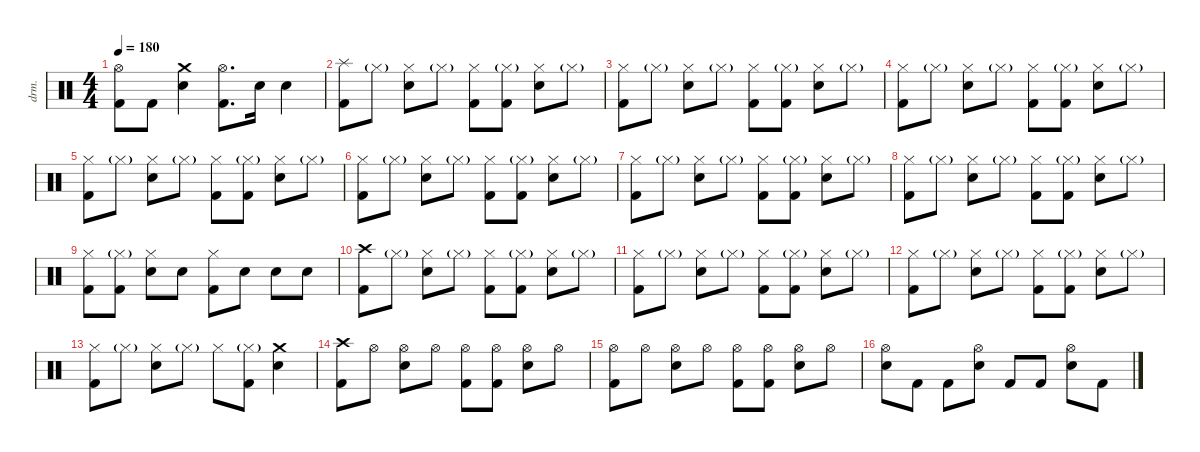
\defaultSystemsLayout 4
\hideDynamics
\bracketExtendMode nobrackets
\otherSystemsTrackNameOrientation horizontal
\track ("Drums: Ritsu Tainaka" "drm.") {instrument percussion}
\staff {score}
\articulation defaults
\ts (4 4)
\tempo 180
\clef neutral
\ks c
("Hi-Hat (open)" "Kick (hit) 2").8{dy f beam Down} "Kick (hit) 2".8{beam Down} ("Crash medium (hit)" "Snare (hit) 2").4{beam Down} ("Hi-Hat (open)" "Kick (hit) 2").8{d beam Down} "Snare (hit) 2".16{beam Down} "Snare (hit) 2".4{beam Down} |
("Splash (hit)" "Kick (hit) 2").8{beam Down} "Hi-Hat (closed)"{g}.8{dy mf beam Down} ("Hi-Hat (closed)" "Snare (hit) 2").8{dy f beam Down} "Hi-Hat (closed)"{g}.8{dy mf beam Down} ("Hi-Hat (closed)" "Kick (hit) 2").8{dy f beam Down} ("Hi-Hat (closed)"{g} "Kick (hit) 2").8{beam Down} ("Hi-Hat (closed)" "Snare (hit) 2").8{beam Down} "Hi-Hat (closed)"{g}.8{dy mf beam Down} |
("Hi-Hat (closed)" "Kick (hit) 2").8{dy f beam Down} "Hi-Hat (closed)"{g}.8{dy mf beam Down} ("Hi-Hat (closed)" "Snare (hit) 2").8{dy f beam Down} "Hi-Hat (closed)"{g}.8{dy mf beam Down} ("Hi-Hat (closed)" "Kick (hit) 2").8{dy f beam Down} ("Hi-Hat (closed)"{g} "Kick (hit) 2").8{beam Down} ("Hi-Hat (closed)" "Snare (hit) 2").8{beam Down} "Hi-Hat (closed)"{g}.8{dy mf beam Down} |
("Hi-Hat (closed)" "Kick (hit) 2").8{dy f beam Down} "Hi-Hat (closed)"{g}.8{dy mf beam Down} ("Hi-Hat (closed)" "Snare (hit) 2").8{dy f beam Down} "Hi-Hat (closed)"{g}.8{dy mf beam Down} ("Hi-Hat (closed)" "Kick (hit) 2").8{dy f beam Down} ("Hi-Hat (closed)"{g} "Kick (hit) 2").8{beam Down} ("Hi-Hat (closed)" "Snare (hit) 2").8{beam Down} "Hi-Hat (closed)"{g}.8{dy mf beam Down} |
("Hi-Hat (closed)" "Kick (hit) 2").8{dy f beam Down} "Hi-Hat (closed)"{g}.8{dy mf beam Down} ("Hi-Hat (closed)" "Snare (hit) 2").8{dy f beam Down} "Hi-Hat (closed)"{g}.8{dy mf beam Down} ("Hi-Hat (closed)" "Kick (hit) 2").8{dy f beam Down} ("Hi-Hat (closed)"{g} "Kick (hit) 2").8{beam Down} ("Hi-Hat (closed)" "Snare (hit) 2").8{beam Down} "Hi-Hat (closed)"{g}.8{dy mf beam Down} |
("Hi-Hat (closed)" "Kick (hit) 2").8{dy f beam Down} "Hi-Hat (closed)"{g}.8{dy mf beam Down} ("Hi-Hat (closed)" "Snare (hit) 2").8{dy f beam Down} "Hi-Hat (closed)"{g}.8{dy mf beam Down} ("Hi-Hat (closed)" "Kick (hit) 2").8{dy f beam Down} ("Hi-Hat (closed)"{g} "Kick (hit) 2").8{beam Down} ("Hi-Hat (closed)" "Snare (hit) 2").8{beam Down} "Hi-Hat (closed)"{g}.8{dy mf beam Down} |
("Hi-Hat (closed)" "Kick (hit) 2").8{dy f beam Down} "Hi-Hat (closed)"{g}.8{dy mf beam Down} ("Hi-Hat (closed)" "Snare (hit) 2").8{dy f beam Down} "Hi-Hat (closed)"{g}.8{dy mf beam Down} ("Hi-Hat (closed)" "Kick (hit) 2").8{dy f beam Down} ("Hi-Hat (closed)"{g} "Kick (hit) 2").8{beam Down} ("Hi-Hat (closed)" "Snare (hit) 2").8{beam Down} "Hi-Hat (closed)"{g}.8{dy mf beam Down} |
("Hi-Hat (closed)" "Kick (hit) 2").8{dy f beam Down} "Hi-Hat (closed)"{g}.8{dy mf beam Down} ("Hi-Hat (closed)" "Snare (hit) 2").8{dy f beam Down} "Hi-Hat (closed)"{g}.8{dy mf beam Down} ("Hi-Hat (closed)" "Kick (hit) 2").8{dy f beam Down} ("Hi-Hat (closed)"{g} "Kick (hit) 2").8{beam Down} ("Hi-Hat (closed)" "Snare (hit) 2").8{beam Down} "Hi-Hat (closed)"{g}.8{dy mf beam Down} |
("Hi-Hat (closed)" "Kick (hit) 2").8{dy f beam Down} ("Hi-Hat (closed)"{g} "Kick (hit) 2").8{beam Down} ("Hi-Hat (closed)" "Snare (hit) 2").8{beam Down} "Snare (hit) 2".8{beam Down} ("Hi-Hat (closed)" "Kick (hit) 2").8{beam Down} "Snare (hit) 2".8{beam Down} "Snare (hit) 2".8{beam Down} "Snare (hit) 2".8{beam Down} |
("Crash high (hit)" "Kick (hit) 2").8{beam Down} "Hi-Hat (closed)"{g}.8{dy mf beam Down} ("Hi-Hat (closed)" "Snare (hit) 2").8{dy f beam Down} "Hi-Hat (closed)"{g}.8{dy mf beam Down} ("Hi-Hat (closed)" "Kick (hit) 2").8{dy f beam Down} ("Hi-Hat (closed)"{g} "Kick (hit) 2").8{beam Down} ("Hi-Hat (closed)" "Snare (hit) 2").8{beam Down} "Hi-Hat (closed)"{g}.8{dy mf beam Down} |
("Hi-Hat (closed)" "Kick (hit) 2").8{dy f beam Down} "Hi-Hat (closed)"{g}.8{dy mf beam Down} ("Hi-Hat (closed)" "Snare (hit) 2").8{dy f beam Down} "Hi-Hat (closed)"{g}.8{dy mf beam Down} ("Hi-Hat (closed)" "Kick (hit) 2").8{dy f beam Down} ("Hi-Hat (closed)"{g} "Kick (hit) 2").8{beam Down} ("Hi-Hat (closed)" "Snare (hit) 2").8{beam Down} "Hi-Hat (closed)"{g}.8{dy mf beam Down} |
("Hi-Hat (closed)" "Kick (hit) 2").8{dy f beam Down} "Hi-Hat (closed)"{g}.8{dy mf beam Down} ("Hi-Hat (closed)" "Snare (hit) 2").8{dy f beam Down} "Hi-Hat (closed)"{g}.8{dy mf beam Down} ("Hi-Hat (closed)" "Kick (hit) 2").8{dy f beam Down} ("Hi-Hat (closed)"{g} "Kick (hit) 2").8{beam Down} ("Hi-Hat (closed)" "Snare (hit) 2").8{beam Down} "Hi-Hat (closed)"{g}.8{dy mf beam Down} |
("Hi-Hat (closed)" "Kick (hit) 2").8{dy f beam Down} "Hi-Hat (closed)"{g}.8{dy mf beam Down} ("Hi-Hat (closed)" "Snare (hit) 2").8{dy f beam Down} "Hi-Hat (closed)"{g}.8{dy mf beam Down} "Hi-Hat (closed)".8{dy f beam Down} ("Hi-Hat (closed)"{g} "Kick (hit) 2").8{beam Down} ("Crash medium (hit)" "Snare (hit) 2").4{beam Down} |
("Crash high (hit)" "Kick (hit) 2").8{beam Down} "Hi-Hat (open)".8{beam Down} ("Hi-Hat (open)" "Snare (hit) 2").8{beam Down} "Hi-Hat (open)".8{beam Down} ("Hi-Hat (open)" "Kick (hit) 2").8{beam Down} ("Hi-Hat (open)" "Kick (hit) 2").8{beam Down} ("Hi-Hat (open)" "Snare (hit) 2").8{beam Down} "Hi-Hat (open)".8{beam Down} |
("Hi-Hat (open)" "Kick (hit) 2").8{beam Down} "Hi-Hat (open)".8{beam Down} ("Hi-Hat (open)" "Snare (hit) 2").8{beam Down} "Hi-Hat (open)".8{beam Down} ("Hi-Hat (open)" "Kick (hit) 2").8{beam Down} ("Hi-Hat (open)" "Kick (hit) 2").8{beam Down} ("Hi-Hat (open)" "Snare (hit) 2").8{beam Down} "Hi-Hat (open)".8{beam Down} |
("Hi-Hat (open)" "Snare (hit) 2").8{beam Down} "Kick (hit) 2".8{beam Down} "Kick (hit) 2".8{beam Down} ("Hi-Hat (open)" "Snare (hit) 2").8{beam Down} "Kick (hit) 2".8{beam Up} "Kick (hit) 2".8{beam Up} ("Hi-Hat (open)" "Snare (hit) 2").8{beam Down} "Kick (hit) 2".8{beam Down}
